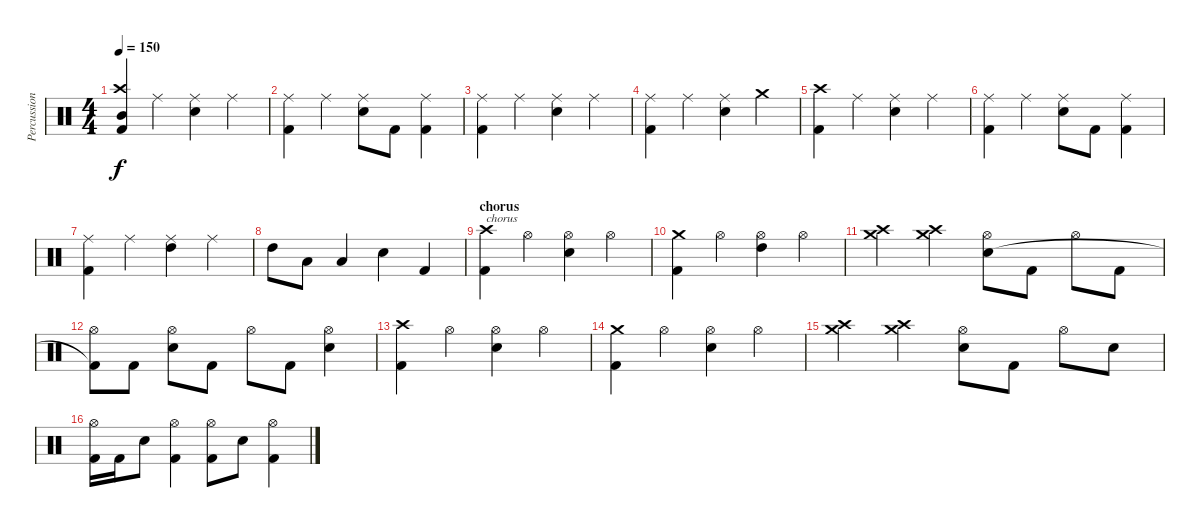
\track ("Percussion" "Percussion") {instrument percussion}
\staff {score}
\articulation defaults
\ts (4 4)
\tempo 150
\clef neutral
\ks c
("Mid Tom (hit)" "Crash high (hit)" "Kick (hit) 2").4{dy f} "Ride (middle)".4 ("Ride (middle)" "Snare (hit) 2").4 "Ride (middle)".4 |
("Ride (middle)" "Kick (hit) 2").4 "Ride (middle)".4 ("Ride (middle)" "Snare (hit) 2").8 "Kick (hit) 2".8 ("Ride (middle)" "Kick (hit) 2").4 |
("Ride (middle)" "Kick (hit) 2").4 "Ride (middle)".4 ("Ride (middle)" "Snare (hit) 2").4 "Ride (middle)".4 |
("Ride (middle)" "Kick (hit) 2").4 "Ride (middle)".4 ("Ride (middle)" "Snare (hit) 2").4 "Crash medium (hit)".4 |
("Crash high (hit)" "Kick (hit) 2").4 "Ride (middle)".4 ("Ride (middle)" "Snare (hit) 2").4 "Ride (middle)".4 |
("Ride (middle)" "Kick (hit) 2").4 "Ride (middle)".4 ("Ride (middle)" "Snare (hit) 2").8 "Kick (hit) 2".8 ("Ride (middle)" "Kick (hit) 2").4 |
("Ride (middle)" "Kick (hit) 2").4 "Ride (middle)".4 ("Ride (middle)" "High Tom (hit)").4 "Ride (middle)".4 |
"High Tom (hit)".8 "Low Tom (hit)".8 "Low Tom (hit)".4 "Snare (hit) 2".4 "Kick (hit) 2".4 |
\section ("" "chorus")
("Crash high (hit)" "Kick (hit) 2").4{txt "chorus"} "Hi-Hat (open)".4 ("Hi-Hat (open)" "Snare (hit) 2").4 "Hi-Hat (open)".4 |
("Crash medium (hit)" "Kick (hit) 2").4 "Hi-Hat (open)".4 ("Hi-Hat (open)" "High Tom (hit)").4 "Hi-Hat (open)".4 |
("Crash medium (hit)" "Crash high (hit)").4 ("Crash medium (hit)" "Crash high (hit)").4 ("Hi-Hat (open)" "Snare (hit) 2").8 "Kick (hit) 2".8 "Hi-Hat (open)".8 "Kick (hit) 2".8 |
("Hi-Hat (open)" "Kick (hit) 2"{t}).8 "Kick (hit) 2".8 ("Hi-Hat (open)" "Snare (hit) 2").8 "Kick (hit) 2".8 "Hi-Hat (open)".8 "Kick (hit) 2".8 ("Hi-Hat (open)" "Snare (hit) 2").4 |
("Crash high (hit)" "Kick (hit) 2").4 "Hi-Hat (open)".4 ("Hi-Hat (open)" "Snare (hit) 2").4 "Hi-Hat (open)".4 |
("Crash medium (hit)" "Kick (hit) 2").4 "Hi-Hat (open)".4 ("Hi-Hat (open)" "Snare (hit) 2").4 "Hi-Hat (open)".4 |
("Crash medium (hit)" "Crash high (hit)").4 ("Crash medium (hit)" "Crash high (hit)").4 ("Hi-Hat (open)" "Snare (hit) 2").8 "Kick (hit) 2".8 "Hi-Hat (open)".8 "Snare (hit) 2".8 |
("Hi-Hat (open)" "Kick (hit) 2").16 "Kick (hit) 2".16 "Snare (hit) 2".8 ("Hi-Hat (open)" "Kick (hit) 2").4 ("Hi-Hat (open)" "Kick (hit) 2").8 "Snare (hit) 2".8 ("Hi-Hat (open)" "Kick (hit) 2").4
